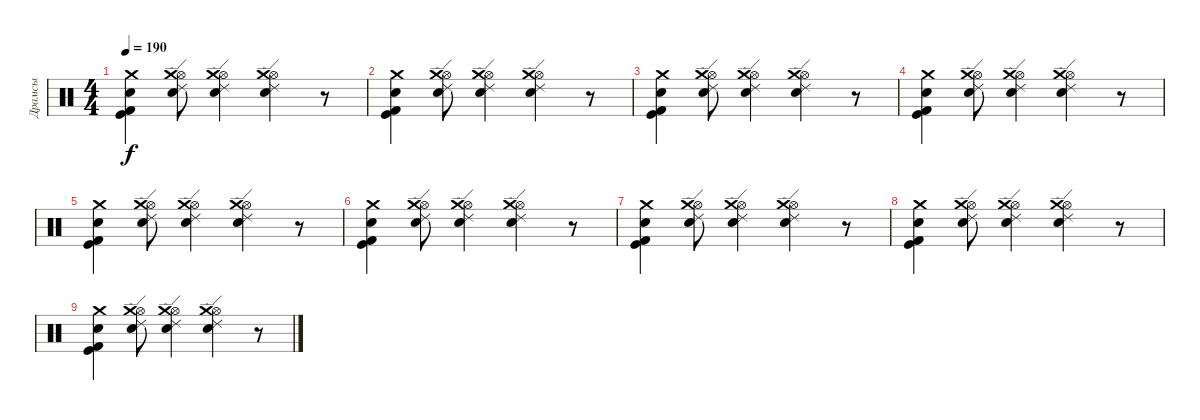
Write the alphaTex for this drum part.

\track ("Драмсы" "Драмсы") {instrument percussion}
\staff {score}
\articulation defaults
\ts (4 4)
\tempo 190
\clef neutral
\ks c
("Kick (hit)" "Kick (hit) 2" "Snare (hit) 2" "Crash medium (hit)").4{dy f} ("Hi-Hat (open)" "Crash medium (hit)" "Ride (edge) 2" "Snare (hit) 2").8 ("Hi-Hat (open)" "Crash medium (hit)" "Ride (edge) 2" "Snare (hit) 2").4 ("Hi-Hat (open)" "Crash medium (hit)" "Ride (edge) 2" "Snare (hit) 2").4 r.8 |
("Kick (hit)" "Kick (hit) 2" "Snare (hit) 2" "Crash medium (hit)").4 ("Hi-Hat (open)" "Crash medium (hit)" "Ride (edge) 2" "Snare (hit) 2").8 ("Hi-Hat (open)" "Crash medium (hit)" "Ride (edge) 2" "Snare (hit) 2").4 ("Hi-Hat (open)" "Crash medium (hit)" "Ride (edge) 2" "Snare (hit) 2").4 r.8 |
("Kick (hit)" "Kick (hit) 2" "Snare (hit) 2" "Crash medium (hit)").4 ("Hi-Hat (open)" "Crash medium (hit)" "Ride (edge) 2" "Snare (hit) 2").8 ("Hi-Hat (open)" "Crash medium (hit)" "Ride (edge) 2" "Snare (hit) 2").4 ("Hi-Hat (open)" "Crash medium (hit)" "Ride (edge) 2" "Snare (hit) 2").4 r.8 |
("Kick (hit)" "Kick (hit) 2" "Snare (hit) 2" "Crash medium (hit)").4 ("Hi-Hat (open)" "Crash medium (hit)" "Ride (edge) 2" "Snare (hit) 2").8 ("Hi-Hat (open)" "Crash medium (hit)" "Ride (edge) 2" "Snare (hit) 2").4 ("Hi-Hat (open)" "Crash medium (hit)" "Ride (edge) 2" "Snare (hit) 2").4 r.8 |
("Kick (hit)" "Kick (hit) 2" "Snare (hit) 2" "Crash medium (hit)").4 ("Hi-Hat (open)" "Crash medium (hit)" "Ride (edge) 2" "Snare (hit) 2").8 ("Hi-Hat (open)" "Crash medium (hit)" "Ride (edge) 2" "Snare (hit) 2").4 ("Hi-Hat (open)" "Crash medium (hit)" "Ride (edge) 2" "Snare (hit) 2").4 r.8 |
("Kick (hit)" "Kick (hit) 2" "Snare (hit) 2" "Crash medium (hit)").4 ("Hi-Hat (open)" "Crash medium (hit)" "Ride (edge) 2" "Snare (hit) 2").8 ("Hi-Hat (open)" "Crash medium (hit)" "Ride (edge) 2" "Snare (hit) 2").4 ("Hi-Hat (open)" "Crash medium (hit)" "Ride (edge) 2" "Snare (hit) 2").4 r.8 |
("Kick (hit)" "Kick (hit) 2" "Snare (hit) 2" "Crash medium (hit)").4 ("Hi-Hat (open)" "Crash medium (hit)" "Ride (edge) 2" "Snare (hit) 2").8 ("Hi-Hat (open)" "Crash medium (hit)" "Ride (edge) 2" "Snare (hit) 2").4 ("Hi-Hat (open)" "Crash medium (hit)" "Ride (edge) 2" "Snare (hit) 2").4 r.8 |
("Kick (hit)" "Kick (hit) 2" "Snare (hit) 2" "Crash medium (hit)").4 ("Hi-Hat (open)" "Crash medium (hit)" "Ride (edge) 2" "Snare (hit) 2").8 ("Hi-Hat (open)" "Crash medium (hit)" "Ride (edge) 2" "Snare (hit) 2").4 ("Hi-Hat (open)" "Crash medium (hit)" "Ride (edge) 2" "Snare (hit) 2").4 r.8 |
("Kick (hit)" "Kick (hit) 2" "Snare (hit) 2" "Crash medium (hit)").4 ("Hi-Hat (open)" "Crash medium (hit)" "Ride (edge) 2" "Snare (hit) 2").8 ("Hi-Hat (open)" "Crash medium (hit)" "Ride (edge) 2" "Snare (hit) 2").4 ("Hi-Hat (open)" "Crash medium (hit)" "Ride (edge) 2" "Snare (hit) 2").4 r.8
